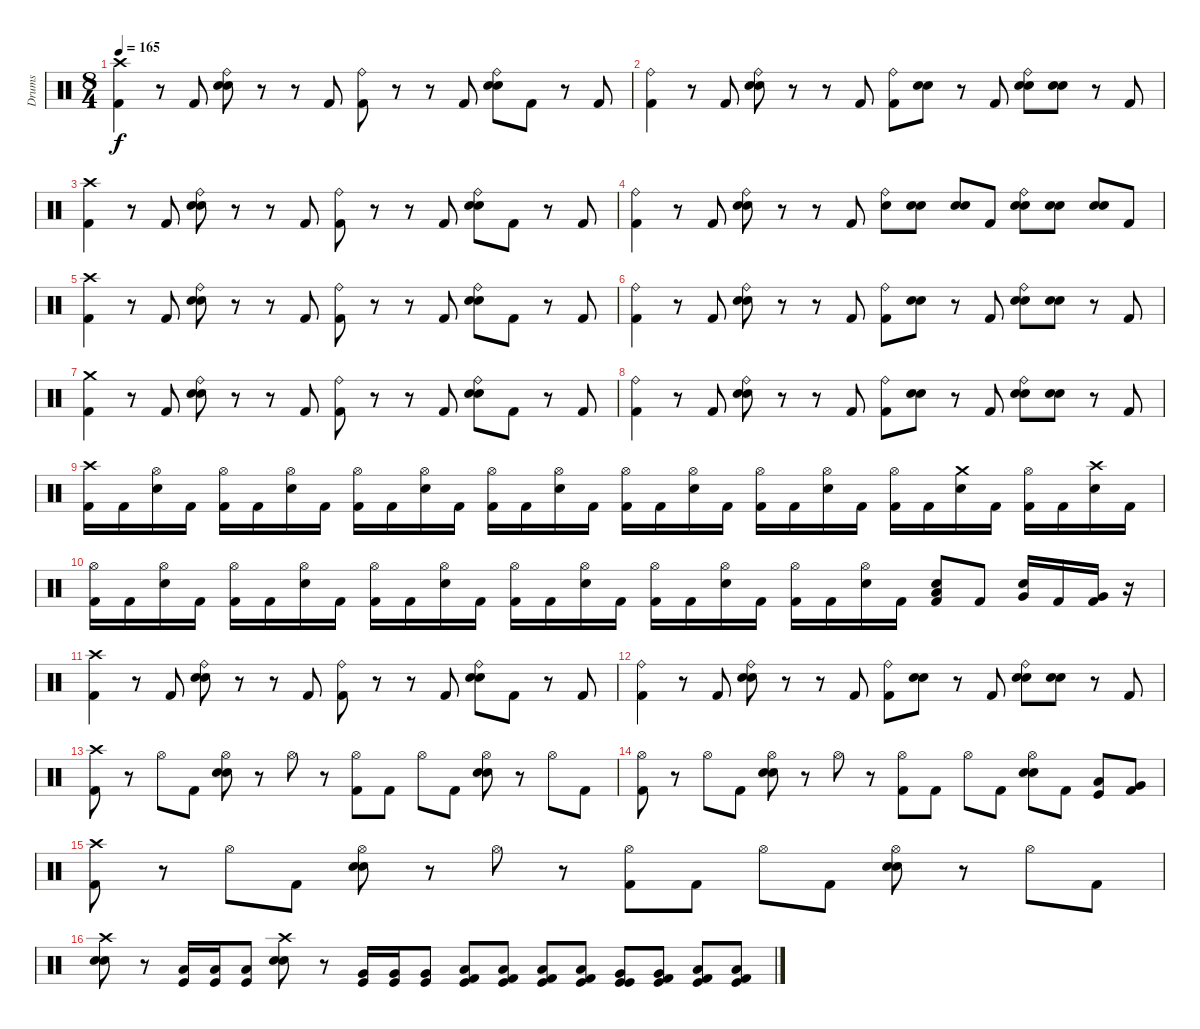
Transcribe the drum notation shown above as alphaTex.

\track ("Drums" "Drums") {instrument percussion}
\staff {score}
\articulation defaults
\ts (8 4)
\tempo 165
\clef neutral
\ks c
("Crash high (hit)" "Kick (hit) 2").4{dy f} r.8 "Kick (hit) 2".8 ("Ride (bell)" "Electric Snare (hit)" "Snare (hit) 2").8 r.8 r.8 "Kick (hit) 2".8 ("Ride (bell)" "Kick (hit) 2").8 r.8 r.8 "Kick (hit) 2".8 ("Ride (bell)" "Electric Snare (hit)" "Snare (hit) 2").8 "Kick (hit) 2".8 r.8 "Kick (hit) 2".8 |
("Ride (bell)" "Kick (hit) 2").4 r.8 "Kick (hit) 2".8 ("Ride (bell)" "Electric Snare (hit)" "Snare (hit) 2").8 r.8 r.8 "Kick (hit) 2".8 ("Ride (bell)" "Kick (hit) 2").8 ("Electric Snare (hit)" "Snare (hit) 2").8 r.8 "Kick (hit) 2".8 ("Ride (bell)" "Electric Snare (hit)" "Snare (hit) 2").8 ("Electric Snare (hit)" "Snare (hit) 2").8 r.8 "Kick (hit) 2".8 |
("Crash high (hit)" "Kick (hit) 2").4 r.8 "Kick (hit) 2".8 ("Ride (bell)" "Electric Snare (hit)" "Snare (hit) 2").8 r.8 r.8 "Kick (hit) 2".8 ("Ride (bell)" "Kick (hit) 2").8 r.8 r.8 "Kick (hit) 2".8 ("Ride (bell)" "Electric Snare (hit)" "Snare (hit) 2").8 "Kick (hit) 2".8 r.8 "Kick (hit) 2".8 |
("Ride (bell)" "Kick (hit) 2").4 r.8 "Kick (hit) 2".8 ("Ride (bell)" "Electric Snare (hit)" "Snare (hit) 2").8 r.8 r.8 "Kick (hit) 2".8 ("Ride (bell)" "Snare (hit) 2").8 ("Electric Snare (hit)" "Snare (hit) 2").8 ("Electric Snare (hit)" "Snare (hit) 2").8 "Kick (hit) 2".8 ("Ride (bell)" "Electric Snare (hit)" "Snare (hit) 2").8 ("Electric Snare (hit)" "Snare (hit) 2").8 ("Snare (hit) 2" "Electric Snare (hit)").8 "Kick (hit) 2".8 |
("Crash high (hit)" "Kick (hit) 2").4 r.8 "Kick (hit) 2".8 ("Ride (bell)" "Electric Snare (hit)" "Snare (hit) 2").8 r.8 r.8 "Kick (hit) 2".8 ("Ride (bell)" "Kick (hit) 2").8 r.8 r.8 "Kick (hit) 2".8 ("Ride (bell)" "Electric Snare (hit)" "Snare (hit) 2").8 "Kick (hit) 2".8 r.8 "Kick (hit) 2".8 |
("Ride (bell)" "Kick (hit) 2").4 r.8 "Kick (hit) 2".8 ("Ride (bell)" "Electric Snare (hit)" "Snare (hit) 2").8 r.8 r.8 "Kick (hit) 2".8 ("Ride (bell)" "Kick (hit) 2").8 ("Electric Snare (hit)" "Snare (hit) 2").8 r.8 "Kick (hit) 2".8 ("Ride (bell)" "Electric Snare (hit)" "Snare (hit) 2").8 ("Electric Snare (hit)" "Snare (hit) 2").8 r.8 "Kick (hit) 2".8 |
("Crash medium (hit)" "Kick (hit) 2").4 r.8 "Kick (hit) 2".8 ("Ride (bell)" "Electric Snare (hit)" "Snare (hit) 2").8 r.8 r.8 "Kick (hit) 2".8 ("Ride (bell)" "Kick (hit) 2").8 r.8 r.8 "Kick (hit) 2".8 ("Ride (bell)" "Electric Snare (hit)" "Snare (hit) 2").8 "Kick (hit) 2".8 r.8 "Kick (hit) 2".8 |
("Ride (bell)" "Kick (hit) 2").4 r.8 "Kick (hit) 2".8 ("Ride (bell)" "Electric Snare (hit)" "Snare (hit) 2").8 r.8 r.8 "Kick (hit) 2".8 ("Ride (bell)" "Kick (hit) 2").8 ("Electric Snare (hit)" "Snare (hit) 2").8 r.8 "Kick (hit) 2".8 ("Ride (bell)" "Electric Snare (hit)" "Snare (hit) 2").8 ("Electric Snare (hit)" "Snare (hit) 2").8 r.8 "Kick (hit) 2".8 |
("Crash high (hit)" "Kick (hit) 2").16 "Kick (hit) 2".16 ("Hi-Hat (open)" "Snare (hit) 2").16 "Kick (hit) 2".16 ("Hi-Hat (open)" "Kick (hit) 2").16 "Kick (hit) 2".16 ("Hi-Hat (open)" "Snare (hit) 2").16 "Kick (hit) 2".16 ("Hi-Hat (open)" "Kick (hit) 2").16 "Kick (hit) 2".16 ("Hi-Hat (open)" "Snare (hit) 2").16 "Kick (hit) 2".16 ("Hi-Hat (open)" "Kick (hit) 2").16 "Kick (hit) 2".16 ("Hi-Hat (open)" "Snare (hit) 2").16 "Kick (hit) 2".16 ("Hi-Hat (open)" "Kick (hit) 2").16 "Kick (hit) 2".16 ("Hi-Hat (open)" "Snare (hit) 2").16 "Kick (hit) 2".16 ("Hi-Hat (open)" "Kick (hit) 2").16 "Kick (hit) 2".16 ("Hi-Hat (open)" "Snare (hit) 2").16 "Kick (hit) 2".16 ("Hi-Hat (open)" "Kick (hit) 2").16 "Kick (hit) 2".16 ("Crash medium (hit)" "Snare (hit) 2").16 "Kick (hit) 2".16 ("Hi-Hat (open)" "Kick (hit) 2").16 "Kick (hit) 2".16 ("Crash high (hit)" "Snare (hit) 2").16 "Kick (hit) 2".16 |
("Hi-Hat (open)" "Kick (hit) 2").16 "Kick (hit) 2".16 ("Hi-Hat (open)" "Snare (hit) 2").16 "Kick (hit) 2".16 ("Hi-Hat (open)" "Kick (hit) 2").16 "Kick (hit) 2".16 ("Hi-Hat (open)" "Snare (hit) 2").16 "Kick (hit) 2".16 ("Hi-Hat (open)" "Kick (hit) 2").16 "Kick (hit) 2".16 ("Hi-Hat (open)" "Snare (hit) 2").16 "Kick (hit) 2".16 ("Hi-Hat (open)" "Kick (hit) 2").16 "Kick (hit) 2".16 ("Hi-Hat (open)" "Snare (hit) 2").16 "Kick (hit) 2".16 ("Hi-Hat (open)" "Kick (hit) 2").16 "Kick (hit) 2".16 ("Hi-Hat (open)" "Snare (hit) 2").16 "Kick (hit) 2".16 ("Hi-Hat (open)" "Kick (hit) 2").16 "Kick (hit) 2".16 ("Hi-Hat (open)" "Snare (hit) 2").16 "Kick (hit) 2".16 ("Low Tom (hit)" "Snare (hit) 2" "Kick (hit) 2").8 "Kick (hit) 2".8 ("Very Low Tom (hit)" "Snare (hit) 2").16 "Kick (hit) 2".16 ("Very Low Tom (hit)" "Kick (hit) 2").16 r.16 |
("Crash high (hit)" "Kick (hit) 2").4 r.8 "Kick (hit) 2".8 ("Ride (bell)" "Electric Snare (hit)" "Snare (hit) 2").8 r.8 r.8 "Kick (hit) 2".8 ("Ride (bell)" "Kick (hit) 2").8 r.8 r.8 "Kick (hit) 2".8 ("Ride (bell)" "Electric Snare (hit)" "Snare (hit) 2").8 "Kick (hit) 2".8 r.8 "Kick (hit) 2".8 |
("Ride (bell)" "Kick (hit) 2").4 r.8 "Kick (hit) 2".8 ("Ride (bell)" "Electric Snare (hit)" "Snare (hit) 2").8 r.8 r.8 "Kick (hit) 2".8 ("Ride (bell)" "Kick (hit) 2").8 ("Electric Snare (hit)" "Snare (hit) 2").8 r.8 "Kick (hit) 2".8 ("Ride (bell)" "Electric Snare (hit)" "Snare (hit) 2").8 ("Electric Snare (hit)" "Snare (hit) 2").8 r.8 "Kick (hit) 2".8 |
("Crash high (hit)" "Kick (hit) 2").8 r.8 "Hi-Hat (open)".8 "Kick (hit) 2".8 ("Hi-Hat (open)" "Electric Snare (hit)" "Snare (hit) 2").8 r.8 "Hi-Hat (open)".8 r.8 ("Hi-Hat (open)" "Kick (hit) 2").8 "Kick (hit) 2".8 "Hi-Hat (open)".8 "Kick (hit) 2".8 ("Hi-Hat (open)" "Snare (hit) 2" "Electric Snare (hit)").8 r.8 "Hi-Hat (open)".8 "Kick (hit) 2".8 |
("Hi-Hat (open)" "Kick (hit) 2").8 r.8 "Hi-Hat (open)".8 "Kick (hit) 2".8 ("Hi-Hat (open)" "Electric Snare (hit)" "Snare (hit) 2").8 r.8 "Hi-Hat (open)".8 r.8 ("Hi-Hat (open)" "Kick (hit) 2").8 "Kick (hit) 2".8 "Hi-Hat (open)".8 "Kick (hit) 2".8 ("Hi-Hat (open)" "Snare (hit) 2" "Electric Snare (hit)").8 "Kick (hit) 2".8 ("Low Tom (hit)" "Kick (hit)").8 ("Very Low Tom (hit)" "Kick (hit) 2").8 |
("Crash high (hit)" "Kick (hit) 2").8 r.8 "Hi-Hat (open)".8 "Kick (hit) 2".8 ("Hi-Hat (open)" "Electric Snare (hit)" "Snare (hit) 2").8 r.8 "Hi-Hat (open)".8 r.8 ("Hi-Hat (open)" "Kick (hit) 2").8 "Kick (hit) 2".8 "Hi-Hat (open)".8 "Kick (hit) 2".8 ("Hi-Hat (open)" "Snare (hit) 2" "Electric Snare (hit)").8 r.8 "Hi-Hat (open)".8 "Kick (hit) 2".8 |
("Crash high (hit)" "Snare (hit) 2" "Electric Snare (hit)").8 r.8 ("Low Tom (hit)" "Kick (hit)").16 ("Low Tom (hit)" "Kick (hit)").16 ("Low Tom (hit)" "Kick (hit)").8 ("Crash high (hit)" "Snare (hit) 2" "Electric Snare (hit)").8 r.8 ("Very Low Tom (hit)" "Kick (hit)").16 ("Very Low Tom (hit)" "Kick (hit)").16 ("Very Low Tom (hit)" "Kick (hit)").8 ("Low Tom (hit)" "Kick (hit)" "Kick (hit) 2").8 ("Low Tom (hit)" "Kick (hit)" "Kick (hit) 2").8 ("Low Tom (hit)" "Kick (hit)" "Kick (hit) 2").8 ("Low Tom (hit)" "Kick (hit)" "Kick (hit) 2").8 ("Very Low Tom (hit)" "Kick (hit)" "Kick (hit)").8 ("Very Low Tom (hit)" "Kick (hit)" "Kick (hit) 2").8 ("Low Floor Tom (hit)" "Kick (hit)" "Kick (hit) 2").8 ("Low Floor Tom (hit)" "Kick (hit)" "Kick (hit) 2").8
